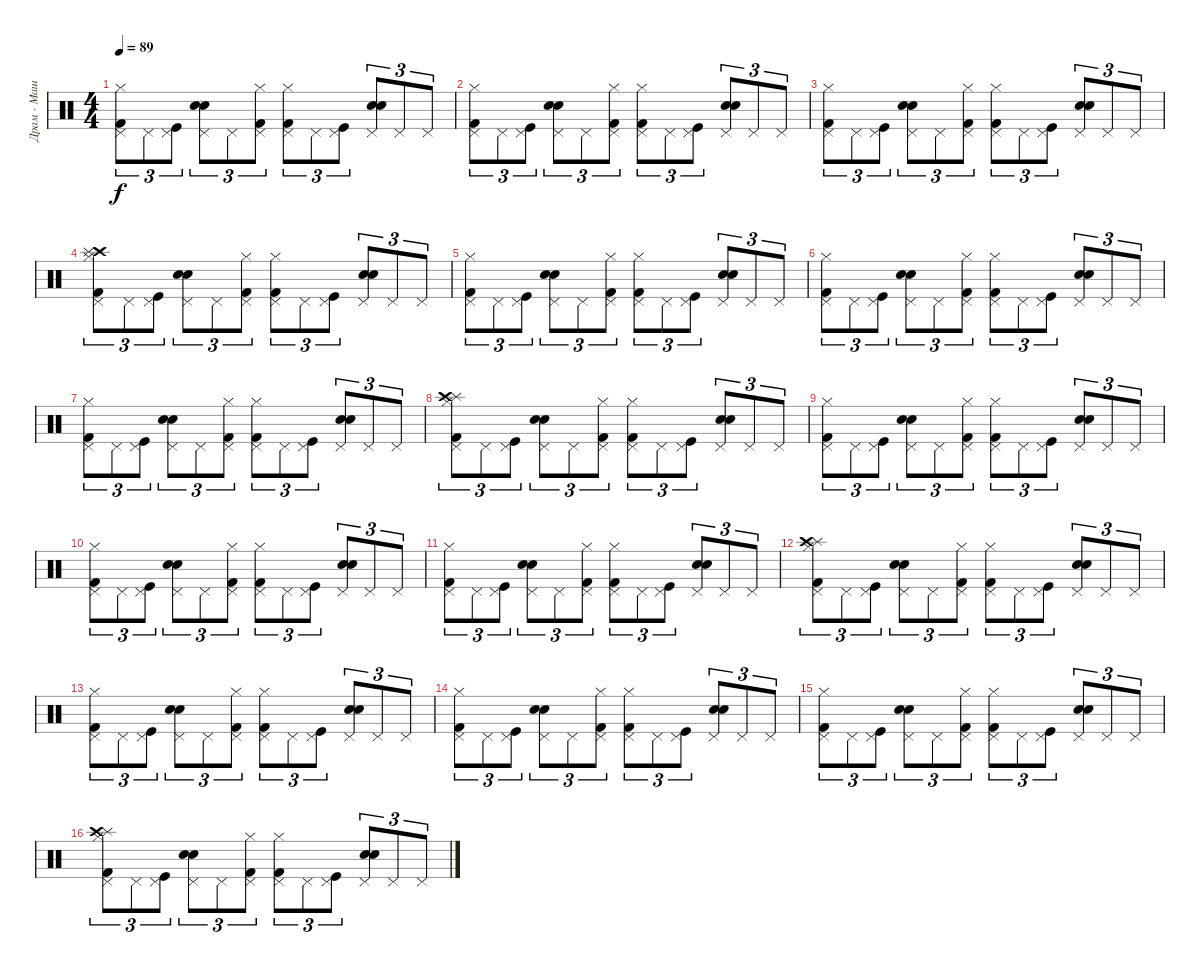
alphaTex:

\track ("Драм - Машина" "Драм - Маш") {instrument percussion}
\staff {score}
\articulation defaults
\ts (4 4)
\tempo 89
\clef neutral
\ks c
("Kick (hit) 2" "Pedal Hi-Hat (hit)" "Hi-Hat (closed)").8{tu (3 2) dy f} "Pedal Hi-Hat (hit)".8{tu (3 2)} ("Pedal Hi-Hat (hit)" "Kick (hit)").8{tu (3 2)} ("Pedal Hi-Hat (hit)" "Electric Snare (hit)" "Snare (hit) 2").8{tu (3 2)} "Pedal Hi-Hat (hit)".8{tu (3 2)} ("Pedal Hi-Hat (hit)" "Hi-Hat (closed)" "Kick (hit) 2").8{tu (3 2)} ("Kick (hit) 2" "Hi-Hat (closed)" "Pedal Hi-Hat (hit)").8{tu (3 2)} "Pedal Hi-Hat (hit)".8{tu (3 2)} ("Pedal Hi-Hat (hit)" "Kick (hit)").8{tu (3 2)} ("Snare (hit) 2" "Electric Snare (hit)" "Pedal Hi-Hat (hit)").8{tu (3 2)} "Pedal Hi-Hat (hit)".8{tu (3 2)} "Pedal Hi-Hat (hit)".8{tu (3 2)} |
("Kick (hit) 2" "Pedal Hi-Hat (hit)" "Hi-Hat (closed)").8{tu (3 2)} "Pedal Hi-Hat (hit)".8{tu (3 2)} ("Kick (hit)" "Pedal Hi-Hat (hit)").8{tu (3 2)} ("Electric Snare (hit)" "Pedal Hi-Hat (hit)" "Snare (hit) 2").8{tu (3 2)} "Pedal Hi-Hat (hit)".8{tu (3 2)} ("Pedal Hi-Hat (hit)" "Kick (hit) 2" "Hi-Hat (closed)").8{tu (3 2)} ("Hi-Hat (closed)" "Kick (hit) 2" "Pedal Hi-Hat (hit)").8{tu (3 2)} "Pedal Hi-Hat (hit)".8{tu (3 2)} ("Pedal Hi-Hat (hit)" "Kick (hit)").8{tu (3 2)} ("Pedal Hi-Hat (hit)" "Snare (hit) 2" "Electric Snare (hit)").8{tu (3 2)} "Pedal Hi-Hat (hit)".8{tu (3 2)} "Pedal Hi-Hat (hit)".8{tu (3 2)} |
("Kick (hit) 2" "Pedal Hi-Hat (hit)" "Hi-Hat (closed)").8{tu (3 2)} "Pedal Hi-Hat (hit)".8{tu (3 2)} ("Kick (hit)" "Pedal Hi-Hat (hit)").8{tu (3 2)} ("Electric Snare (hit)" "Snare (hit) 2" "Pedal Hi-Hat (hit)").8{tu (3 2)} "Pedal Hi-Hat (hit)".8{tu (3 2)} ("Kick (hit) 2" "Hi-Hat (closed)" "Pedal Hi-Hat (hit)").8{tu (3 2)} ("Pedal Hi-Hat (hit)" "Hi-Hat (closed)" "Kick (hit) 2").8{tu (3 2)} "Pedal Hi-Hat (hit)".8{tu (3 2)} ("Kick (hit)" "Pedal Hi-Hat (hit)").8{tu (3 2)} ("Electric Snare (hit)" "Snare (hit) 2" "Pedal Hi-Hat (hit)").8{tu (3 2)} "Pedal Hi-Hat (hit)".8{tu (3 2)} "Pedal Hi-Hat (hit)".8{tu (3 2)} |
("Crash high (hit)" "Splash (hit)" "Pedal Hi-Hat (hit)" "Kick (hit) 2" "Hi-Hat (closed)").8{tu (3 2)} "Pedal Hi-Hat (hit)".8{tu (3 2)} ("Kick (hit)" "Pedal Hi-Hat (hit)").8{tu (3 2)} ("Electric Snare (hit)" "Snare (hit) 2" "Pedal Hi-Hat (hit)").8{tu (3 2)} "Pedal Hi-Hat (hit)".8{tu (3 2)} ("Hi-Hat (closed)" "Kick (hit) 2" "Pedal Hi-Hat (hit)").8{tu (3 2)} ("Hi-Hat (closed)" "Kick (hit) 2" "Pedal Hi-Hat (hit)").8{tu (3 2)} "Pedal Hi-Hat (hit)".8{tu (3 2)} ("Pedal Hi-Hat (hit)" "Kick (hit)").8{tu (3 2)} ("Electric Snare (hit)" "Snare (hit) 2" "Pedal Hi-Hat (hit)").8{tu (3 2)} "Pedal Hi-Hat (hit)".8{tu (3 2)} "Pedal Hi-Hat (hit)".8{tu (3 2)} |
("Hi-Hat (closed)" "Kick (hit) 2" "Pedal Hi-Hat (hit)").8{tu (3 2)} "Pedal Hi-Hat (hit)".8{tu (3 2)} ("Kick (hit)" "Pedal Hi-Hat (hit)").8{tu (3 2)} ("Electric Snare (hit)" "Snare (hit) 2" "Pedal Hi-Hat (hit)").8{tu (3 2)} "Pedal Hi-Hat (hit)".8{tu (3 2)} ("Hi-Hat (closed)" "Kick (hit) 2" "Pedal Hi-Hat (hit)").8{tu (3 2)} ("Pedal Hi-Hat (hit)" "Kick (hit) 2" "Hi-Hat (closed)").8{tu (3 2)} "Pedal Hi-Hat (hit)".8{tu (3 2)} ("Kick (hit)" "Pedal Hi-Hat (hit)").8{tu (3 2)} ("Snare (hit) 2" "Pedal Hi-Hat (hit)" "Electric Snare (hit)").8{tu (3 2)} "Pedal Hi-Hat (hit)".8{tu (3 2)} "Pedal Hi-Hat (hit)".8{tu (3 2)} |
("Hi-Hat (closed)" "Kick (hit) 2" "Pedal Hi-Hat (hit)").8{tu (3 2)} "Pedal Hi-Hat (hit)".8{tu (3 2)} ("Pedal Hi-Hat (hit)" "Kick (hit)").8{tu (3 2)} ("Pedal Hi-Hat (hit)" "Snare (hit) 2" "Electric Snare (hit)").8{tu (3 2)} "Pedal Hi-Hat (hit)".8{tu (3 2)} ("Hi-Hat (closed)" "Kick (hit) 2" "Pedal Hi-Hat (hit)").8{tu (3 2)} ("Kick (hit) 2" "Hi-Hat (closed)" "Pedal Hi-Hat (hit)").8{tu (3 2)} "Pedal Hi-Hat (hit)".8{tu (3 2)} ("Kick (hit)" "Pedal Hi-Hat (hit)").8{tu (3 2)} ("Electric Snare (hit)" "Pedal Hi-Hat (hit)" "Snare (hit) 2").8{tu (3 2)} "Pedal Hi-Hat (hit)".8{tu (3 2)} "Pedal Hi-Hat (hit)".8{tu (3 2)} |
("Kick (hit) 2" "Pedal Hi-Hat (hit)" "Hi-Hat (closed)").8{tu (3 2)} "Pedal Hi-Hat (hit)".8{tu (3 2)} ("Kick (hit)" "Pedal Hi-Hat (hit)").8{tu (3 2)} ("Snare (hit) 2" "Electric Snare (hit)" "Pedal Hi-Hat (hit)").8{tu (3 2)} "Pedal Hi-Hat (hit)".8{tu (3 2)} ("Pedal Hi-Hat (hit)" "Kick (hit) 2" "Hi-Hat (closed)").8{tu (3 2)} ("Hi-Hat (closed)" "Kick (hit) 2" "Pedal Hi-Hat (hit)").8{tu (3 2)} "Pedal Hi-Hat (hit)".8{tu (3 2)} ("Kick (hit)" "Pedal Hi-Hat (hit)").8{tu (3 2)} ("Electric Snare (hit)" "Snare (hit) 2" "Pedal Hi-Hat (hit)").8{tu (3 2)} "Pedal Hi-Hat (hit)".8{tu (3 2)} "Pedal Hi-Hat (hit)".8{tu (3 2)} |
("Splash (hit)" "Kick (hit) 2" "Hi-Hat (closed)" "Pedal Hi-Hat (hit)" "Crash high (hit)").8{tu (3 2)} "Pedal Hi-Hat (hit)".8{tu (3 2)} ("Kick (hit)" "Pedal Hi-Hat (hit)").8{tu (3 2)} ("Snare (hit) 2" "Electric Snare (hit)" "Pedal Hi-Hat (hit)").8{tu (3 2)} "Pedal Hi-Hat (hit)".8{tu (3 2)} ("Hi-Hat (closed)" "Kick (hit) 2" "Pedal Hi-Hat (hit)").8{tu (3 2)} ("Pedal Hi-Hat (hit)" "Hi-Hat (closed)" "Kick (hit) 2").8{tu (3 2)} "Pedal Hi-Hat (hit)".8{tu (3 2)} ("Kick (hit)" "Pedal Hi-Hat (hit)").8{tu (3 2)} ("Electric Snare (hit)" "Pedal Hi-Hat (hit)" "Snare (hit) 2").8{tu (3 2)} "Pedal Hi-Hat (hit)".8{tu (3 2)} "Pedal Hi-Hat (hit)".8{tu (3 2)} |
("Kick (hit) 2" "Pedal Hi-Hat (hit)" "Hi-Hat (closed)").8{tu (3 2)} "Pedal Hi-Hat (hit)".8{tu (3 2)} ("Pedal Hi-Hat (hit)" "Kick (hit)").8{tu (3 2)} ("Electric Snare (hit)" "Pedal Hi-Hat (hit)" "Snare (hit) 2").8{tu (3 2)} "Pedal Hi-Hat (hit)".8{tu (3 2)} ("Hi-Hat (closed)" "Pedal Hi-Hat (hit)" "Kick (hit) 2").8{tu (3 2)} ("Kick (hit) 2" "Hi-Hat (closed)" "Pedal Hi-Hat (hit)").8{tu (3 2)} "Pedal Hi-Hat (hit)".8{tu (3 2)} ("Pedal Hi-Hat (hit)" "Kick (hit)").8{tu (3 2)} ("Snare (hit) 2" "Pedal Hi-Hat (hit)" "Electric Snare (hit)").8{tu (3 2)} "Pedal Hi-Hat (hit)".8{tu (3 2)} "Pedal Hi-Hat (hit)".8{tu (3 2)} |
("Kick (hit) 2" "Pedal Hi-Hat (hit)" "Hi-Hat (closed)").8{tu (3 2)} "Pedal Hi-Hat (hit)".8{tu (3 2)} ("Kick (hit)" "Pedal Hi-Hat (hit)").8{tu (3 2)} ("Pedal Hi-Hat (hit)" "Electric Snare (hit)" "Snare (hit) 2").8{tu (3 2)} "Pedal Hi-Hat (hit)".8{tu (3 2)} ("Kick (hit) 2" "Pedal Hi-Hat (hit)" "Hi-Hat (closed)").8{tu (3 2)} ("Hi-Hat (closed)" "Kick (hit) 2" "Pedal Hi-Hat (hit)").8{tu (3 2)} "Pedal Hi-Hat (hit)".8{tu (3 2)} ("Kick (hit)" "Pedal Hi-Hat (hit)").8{tu (3 2)} ("Snare (hit) 2" "Pedal Hi-Hat (hit)" "Electric Snare (hit)").8{tu (3 2)} "Pedal Hi-Hat (hit)".8{tu (3 2)} "Pedal Hi-Hat (hit)".8{tu (3 2)} |
("Hi-Hat (closed)" "Pedal Hi-Hat (hit)" "Kick (hit) 2").8{tu (3 2)} "Pedal Hi-Hat (hit)".8{tu (3 2)} ("Pedal Hi-Hat (hit)" "Kick (hit)").8{tu (3 2)} ("Pedal Hi-Hat (hit)" "Snare (hit) 2" "Electric Snare (hit)").8{tu (3 2)} "Pedal Hi-Hat (hit)".8{tu (3 2)} ("Pedal Hi-Hat (hit)" "Hi-Hat (closed)" "Kick (hit) 2").8{tu (3 2)} ("Hi-Hat (closed)" "Kick (hit) 2" "Pedal Hi-Hat (hit)").8{tu (3 2)} "Pedal Hi-Hat (hit)".8{tu (3 2)} ("Pedal Hi-Hat (hit)" "Kick (hit)").8{tu (3 2)} ("Snare (hit) 2" "Pedal Hi-Hat (hit)" "Electric Snare (hit)").8{tu (3 2)} "Pedal Hi-Hat (hit)".8{tu (3 2)} "Pedal Hi-Hat (hit)".8{tu (3 2)} |
("Splash (hit)" "Kick (hit) 2" "Hi-Hat (closed)" "Crash high (hit)" "Pedal Hi-Hat (hit)").8{tu (3 2)} "Pedal Hi-Hat (hit)".8{tu (3 2)} ("Kick (hit)" "Pedal Hi-Hat (hit)").8{tu (3 2)} ("Electric Snare (hit)" "Snare (hit) 2" "Pedal Hi-Hat (hit)").8{tu (3 2)} "Pedal Hi-Hat (hit)".8{tu (3 2)} ("Hi-Hat (closed)" "Kick (hit) 2" "Pedal Hi-Hat (hit)").8{tu (3 2)} ("Hi-Hat (closed)" "Kick (hit) 2" "Pedal Hi-Hat (hit)").8{tu (3 2)} "Pedal Hi-Hat (hit)".8{tu (3 2)} ("Pedal Hi-Hat (hit)" "Kick (hit)").8{tu (3 2)} ("Pedal Hi-Hat (hit)" "Snare (hit) 2" "Electric Snare (hit)").8{tu (3 2)} "Pedal Hi-Hat (hit)".8{tu (3 2)} "Pedal Hi-Hat (hit)".8{tu (3 2)} |
("Pedal Hi-Hat (hit)" "Kick (hit) 2" "Hi-Hat (closed)").8{tu (3 2)} "Pedal Hi-Hat (hit)".8{tu (3 2)} ("Kick (hit)" "Pedal Hi-Hat (hit)").8{tu (3 2)} ("Electric Snare (hit)" "Snare (hit) 2" "Pedal Hi-Hat (hit)").8{tu (3 2)} "Pedal Hi-Hat (hit)".8{tu (3 2)} ("Hi-Hat (closed)" "Kick (hit) 2" "Pedal Hi-Hat (hit)").8{tu (3 2)} ("Pedal Hi-Hat (hit)" "Kick (hit) 2" "Hi-Hat (closed)").8{tu (3 2)} "Pedal Hi-Hat (hit)".8{tu (3 2)} ("Kick (hit)" "Pedal Hi-Hat (hit)").8{tu (3 2)} ("Electric Snare (hit)" "Pedal Hi-Hat (hit)" "Snare (hit) 2").8{tu (3 2)} "Pedal Hi-Hat (hit)".8{tu (3 2)} "Pedal Hi-Hat (hit)".8{tu (3 2)} |
("Pedal Hi-Hat (hit)" "Kick (hit) 2" "Hi-Hat (closed)").8{tu (3 2)} "Pedal Hi-Hat (hit)".8{tu (3 2)} ("Pedal Hi-Hat (hit)" "Kick (hit)").8{tu (3 2)} ("Pedal Hi-Hat (hit)" "Snare (hit) 2" "Electric Snare (hit)").8{tu (3 2)} "Pedal Hi-Hat (hit)".8{tu (3 2)} ("Hi-Hat (closed)" "Kick (hit) 2" "Pedal Hi-Hat (hit)").8{tu (3 2)} ("Kick (hit) 2" "Hi-Hat (closed)" "Pedal Hi-Hat (hit)").8{tu (3 2)} "Pedal Hi-Hat (hit)".8{tu (3 2)} ("Kick (hit)" "Pedal Hi-Hat (hit)").8{tu (3 2)} ("Snare (hit) 2" "Pedal Hi-Hat (hit)" "Electric Snare (hit)").8{tu (3 2)} "Pedal Hi-Hat (hit)".8{tu (3 2)} "Pedal Hi-Hat (hit)".8{tu (3 2)} |
("Hi-Hat (closed)" "Pedal Hi-Hat (hit)" "Kick (hit) 2").8{tu (3 2)} "Pedal Hi-Hat (hit)".8{tu (3 2)} ("Kick (hit)" "Pedal Hi-Hat (hit)").8{tu (3 2)} ("Snare (hit) 2" "Electric Snare (hit)" "Pedal Hi-Hat (hit)").8{tu (3 2)} "Pedal Hi-Hat (hit)".8{tu (3 2)} ("Pedal Hi-Hat (hit)" "Kick (hit) 2" "Hi-Hat (closed)").8{tu (3 2)} ("Hi-Hat (closed)" "Kick (hit) 2" "Pedal Hi-Hat (hit)").8{tu (3 2)} "Pedal Hi-Hat (hit)".8{tu (3 2)} ("Kick (hit)" "Pedal Hi-Hat (hit)").8{tu (3 2)} ("Pedal Hi-Hat (hit)" "Snare (hit) 2" "Electric Snare (hit)").8{tu (3 2)} "Pedal Hi-Hat (hit)".8{tu (3 2)} "Pedal Hi-Hat (hit)".8{tu (3 2)} |
("Hi-Hat (closed)" "Splash (hit)" "Crash high (hit)" "Kick (hit) 2" "Pedal Hi-Hat (hit)").8{tu (3 2)} "Pedal Hi-Hat (hit)".8{tu (3 2)} ("Pedal Hi-Hat (hit)" "Kick (hit)").8{tu (3 2)} ("Pedal Hi-Hat (hit)" "Snare (hit) 2" "Electric Snare (hit)").8{tu (3 2)} "Pedal Hi-Hat (hit)".8{tu (3 2)} ("Pedal Hi-Hat (hit)" "Hi-Hat (closed)" "Kick (hit) 2").8{tu (3 2)} ("Hi-Hat (closed)" "Kick (hit) 2" "Pedal Hi-Hat (hit)").8{tu (3 2)} "Pedal Hi-Hat (hit)".8{tu (3 2)} ("Pedal Hi-Hat (hit)" "Kick (hit)").8{tu (3 2)} ("Pedal Hi-Hat (hit)" "Snare (hit) 2" "Electric Snare (hit)").8{tu (3 2)} "Pedal Hi-Hat (hit)".8{tu (3 2)} "Pedal Hi-Hat (hit)".8{tu (3 2)}
